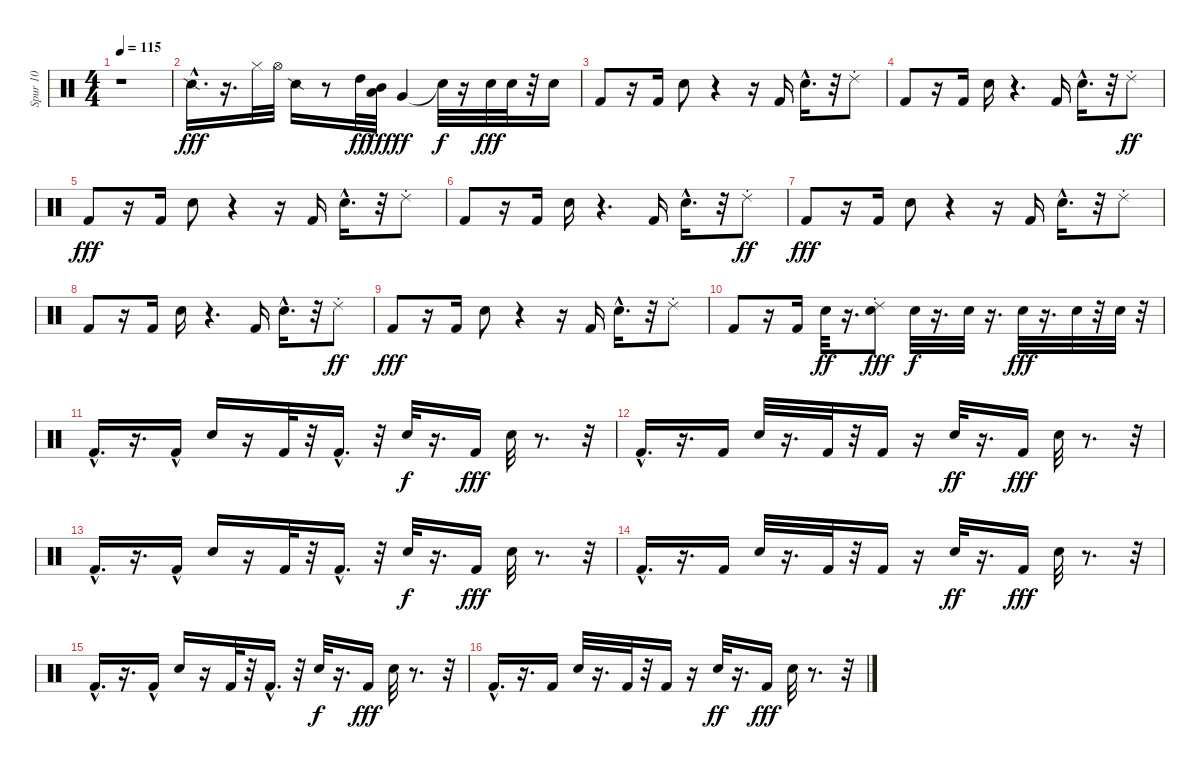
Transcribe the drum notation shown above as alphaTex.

\track ("Spur 10" "Spur 10") {instrument percussion}
\staff {score}
\articulation defaults
\ts (4 4)
\tempo 115
\clef neutral
\ks c
r.1{dy fff} |
"Snare (side stick) 2"{hac}.16{d} r.16{d} "Hi-Hat (closed)".32 "Hi-Hat (open)".32 "Snare (side stick) 2".16 r.8 "High Tom (hit)".32{dy ff} ("Mid Tom (hit)" "Low Tom (hit)").32{dy fff} "Very Low Tom (hit)".4{dy ff} "Snare (hit)"{t}.32{dy f} r.16 "Electric Snare (hit)".32{dy fff} "Electric Snare (hit)".32 r.32 "Electric Snare (hit)".16 |
"Kick (hit) 2".8{volume 14} r.16 "Kick (hit) 2".16 "Metronome (bell)".8 r.4 r.16 "Kick (hit) 2".16 "Metronome (bell)"{hac}.16{d} r.32 "Ride (choke) 2".8 |
"Kick (hit) 2".8 r.16 "Kick (hit) 2".16 "Metronome (bell)".16 r.4{d} "Kick (hit) 2".16 "Metronome (bell)"{hac}.16{d} r.32 "Ride (choke) 2".8{dy ff} |
"Kick (hit) 2".8{dy fff} r.16 "Kick (hit) 2".16 "Metronome (bell)".8 r.4 r.16 "Kick (hit) 2".16 "Metronome (bell)"{hac}.16{d} r.32 "Ride (choke) 2".8 |
"Kick (hit) 2".8 r.16 "Kick (hit) 2".16 "Metronome (bell)".16 r.4{d} "Kick (hit) 2".16 "Metronome (bell)"{hac}.16{d} r.32 "Ride (choke) 2".8{dy ff} |
"Kick (hit) 2".8{dy fff} r.16 "Kick (hit) 2".16 "Metronome (bell)".8 r.4 r.16 "Kick (hit) 2".16 "Metronome (bell)"{hac}.16{d} r.32 "Ride (choke) 2".8 |
"Kick (hit) 2".8 r.16 "Kick (hit) 2".16 "Metronome (bell)".16 r.4{d} "Kick (hit) 2".16 "Metronome (bell)"{hac}.16{d} r.32 "Ride (choke) 2".8{dy ff} |
"Kick (hit) 2".8{dy fff} r.16 "Kick (hit) 2".16 "Metronome (bell)".8 r.4 r.16 "Kick (hit) 2".16 "Metronome (bell)"{hac}.16{d} r.32 "Ride (choke) 2".8 |
"Kick (hit) 2".8 r.16 "Kick (hit) 2".16 "Metronome (bell)".32{dy ff} r.16{d} ("Ride (choke) 2" "Metronome (bell)").8{dy fff} "Metronome (bell)".32{dy f} r.16{d} "Metronome (bell)".32 r.16{d} "Metronome (bell)".32{dy fff} r.16{d} "Metronome (bell)".32 r.32 "Metronome (bell)".32 r.32 |
"Kick (hit) 2"{hac}.16{d volume 14} r.16{d} "Kick (hit) 2"{hac}.16 "Metronome (bell)".16 r.16 "Kick (hit) 2".32 r.32 "Kick (hit) 2"{hac}.16{d} r.32 "Metronome (bell)".32{dy f} r.16{d} "Kick (hit) 2".16{dy fff} "Metronome (bell)".32 r.8{d} r.32 |
"Kick (hit) 2"{hac}.16{d} r.16{d} "Kick (hit) 2".16 "Metronome (bell)".32 r.16{d} "Kick (hit) 2".32 r.32 "Kick (hit) 2".16 r.16 "Metronome (bell)".32{dy ff} r.16{d} "Kick (hit) 2".16{dy fff} "Metronome (bell)".32 r.8{d} r.32 |
"Kick (hit) 2"{hac}.16{d} r.16{d} "Kick (hit) 2"{hac}.16 "Metronome (bell)".16 r.16 "Kick (hit) 2".32 r.32 "Kick (hit) 2"{hac}.16{d} r.32 "Metronome (bell)".32{dy f} r.16{d} "Kick (hit) 2".16{dy fff} "Metronome (bell)".32 r.8{d} r.32 |
"Kick (hit) 2"{hac}.16{d} r.16{d} "Kick (hit) 2".16 "Metronome (bell)".32 r.16{d} "Kick (hit) 2".32 r.32 "Kick (hit) 2".16 r.16 "Metronome (bell)".32{dy ff} r.16{d} "Kick (hit) 2".16{dy fff} "Metronome (bell)".32 r.8{d} r.32 |
"Kick (hit) 2"{hac}.16{d} r.16{d} "Kick (hit) 2"{hac}.16 "Metronome (bell)".16 r.16 "Kick (hit) 2".32 r.32 "Kick (hit) 2"{hac}.16{d} r.32 "Metronome (bell)".32{dy f} r.16{d} "Kick (hit) 2".16{dy fff} "Metronome (bell)".32 r.8{d} r.32 |
"Kick (hit) 2"{hac}.16{d} r.16{d} "Kick (hit) 2".16 "Metronome (bell)".32 r.16{d} "Kick (hit) 2".32 r.32 "Kick (hit) 2".16 r.16 "Metronome (bell)".32{dy ff} r.16{d} "Kick (hit) 2".16{dy fff} "Metronome (bell)".32 r.8{d} r.32
